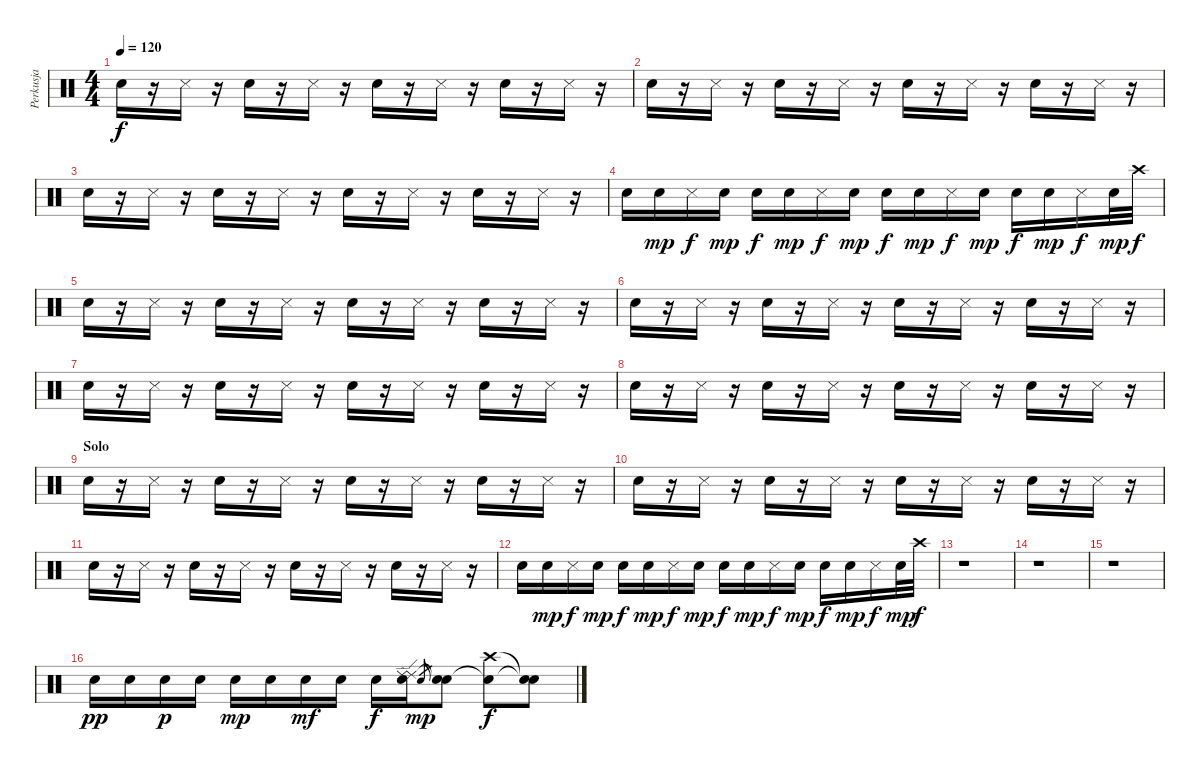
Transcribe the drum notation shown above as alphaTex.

\track ("Perkusja" "Perkusja") {instrument percussion}
\staff {score}
\articulation defaults
\ts (4 4)
\tempo 120
\clef neutral
\ks c "Snare (hit) 2".16{dy f}
r.16 "Snare (side stick) 3".16 r.16 "Snare (hit) 2".16 r.16 "Snare (side stick) 3".16 r.16 "Snare (hit) 2".16 r.16 "Snare (side stick) 3".16 r.16 "Snare (hit) 2".16 r.16 "Snare (side stick) 3".16 r.16 |
"Snare (hit) 2".16 r.16 "Snare (side stick) 3".16 r.16 "Snare (hit) 2".16 r.16 "Snare (side stick) 3".16 r.16 "Snare (hit) 2".16 r.16 "Snare (side stick) 3".16 r.16 "Snare (hit) 2".16 r.16 "Snare (side stick) 3".16 r.16 |
"Snare (hit) 2".16 r.16 "Snare (side stick) 3".16 r.16 "Snare (hit) 2".16 r.16 "Snare (side stick) 3".16 r.16 "Snare (hit) 2".16 r.16 "Snare (side stick) 3".16 r.16 "Snare (hit) 2".16 r.16 "Snare (side stick) 3".16 r.16 |
"Snare (hit) 2".16 "Snare (hit) 2".16{dy mp} "Snare (side stick) 3".16{dy f} "Snare (hit) 2".16{dy mp} "Snare (hit) 2".16{dy f} "Snare (hit) 2".16{dy mp} "Snare (side stick) 3".16{dy f} "Snare (hit) 2".16{dy mp} "Snare (hit) 2".16{dy f} "Snare (hit) 2".16{dy mp} "Snare (side stick) 3".16{dy f} "Snare (hit) 2".16{dy mp} "Snare (hit) 2".16{dy f} "Snare (hit) 2".16{dy mp} "Snare (side stick) 3".16{dy f} "Snare (hit) 2".32{dy mp} "Crash high (hit)".32{dy f} |
"Snare (hit) 2".16 r.16 "Snare (side stick) 3".16 r.16 "Snare (hit) 2".16 r.16 "Snare (side stick) 3".16 r.16 "Snare (hit) 2".16 r.16 "Snare (side stick) 3".16 r.16 "Snare (hit) 2".16 r.16 "Snare (side stick) 3".16 r.16 |
"Snare (hit) 2".16 r.16 "Snare (side stick) 3".16 r.16 "Snare (hit) 2".16 r.16 "Snare (side stick) 3".16 r.16 "Snare (hit) 2".16 r.16 "Snare (side stick) 3".16 r.16 "Snare (hit) 2".16 r.16 "Snare (side stick) 3".16 r.16 |
"Snare (hit) 2".16 r.16 "Snare (side stick) 3".16 r.16 "Snare (hit) 2".16 r.16 "Snare (side stick) 3".16 r.16 "Snare (hit) 2".16 r.16 "Snare (side stick) 3".16 r.16 "Snare (hit) 2".16 r.16 "Snare (side stick) 3".16 r.16 |
"Snare (hit) 2".16 r.16 "Snare (side stick) 3".16 r.16 "Snare (hit) 2".16 r.16 "Snare (side stick) 3".16 r.16 "Snare (hit) 2".16 r.16 "Snare (side stick) 3".16 r.16 "Snare (hit) 2".16 r.16 "Snare (side stick) 3".16 r.16 |
\section ("" "Solo")
"Snare (hit) 2".16 r.16 "Snare (side stick) 3".16 r.16 "Snare (hit) 2".16 r.16 "Snare (side stick) 3".16 r.16 "Snare (hit) 2".16 r.16 "Snare (side stick) 3".16 r.16 "Snare (hit) 2".16 r.16 "Snare (side stick) 3".16 r.16 |
"Snare (hit) 2".16 r.16 "Snare (side stick) 3".16 r.16 "Snare (hit) 2".16 r.16 "Snare (side stick) 3".16 r.16 "Snare (hit) 2".16 r.16 "Snare (side stick) 3".16 r.16 "Snare (hit) 2".16 r.16 "Snare (side stick) 3".16 r.16 |
"Snare (hit) 2".16 r.16 "Snare (side stick) 3".16 r.16 "Snare (hit) 2".16 r.16 "Snare (side stick) 3".16 r.16 "Snare (hit) 2".16 r.16 "Snare (side stick) 3".16 r.16 "Snare (hit) 2".16 r.16 "Snare (side stick) 3".16 r.16 |
"Snare (hit) 2".16 "Snare (hit) 2".16{dy mp} "Snare (side stick) 3".16{dy f} "Snare (hit) 2".16{dy mp} "Snare (hit) 2".16{dy f} "Snare (hit) 2".16{dy mp} "Snare (side stick) 3".16{dy f} "Snare (hit) 2".16{dy mp} "Snare (hit) 2".16{dy f} "Snare (hit) 2".16{dy mp} "Snare (side stick) 3".16{dy f} "Snare (hit) 2".16{dy mp} "Snare (hit) 2".16{dy f} "Snare (hit) 2".16{dy mp} "Snare (side stick) 3".16{dy f} "Snare (hit) 2".32{dy mp} "Crash high (hit)".32{dy f} |
r.1 |
r.1 |
r.1 |
"Electric Snare (hit)".16{dy pp} "Electric Snare (hit)".16 "Electric Snare (hit)".16{dy p} "Electric Snare (hit)".16 "Electric Snare (hit)".16{dy mp} "Electric Snare (hit)".16 "Electric Snare (hit)".16{dy mf} "Electric Snare (hit)".16 "Electric Snare (hit)".16{dy f} ("Electric Snare (hit)" "Ride (edge) 2" "Ride (edge) 2").16 "Electric Snare (hit)".8{gr dy mp} ("Electric Snare (hit)" "Snare (hit)"{t}).8 ("Crash high (hit)" "Snare (hit)"{t}).8{dy f} ("Snare (hit)"{t} "Snare (hit)"{t}).8
